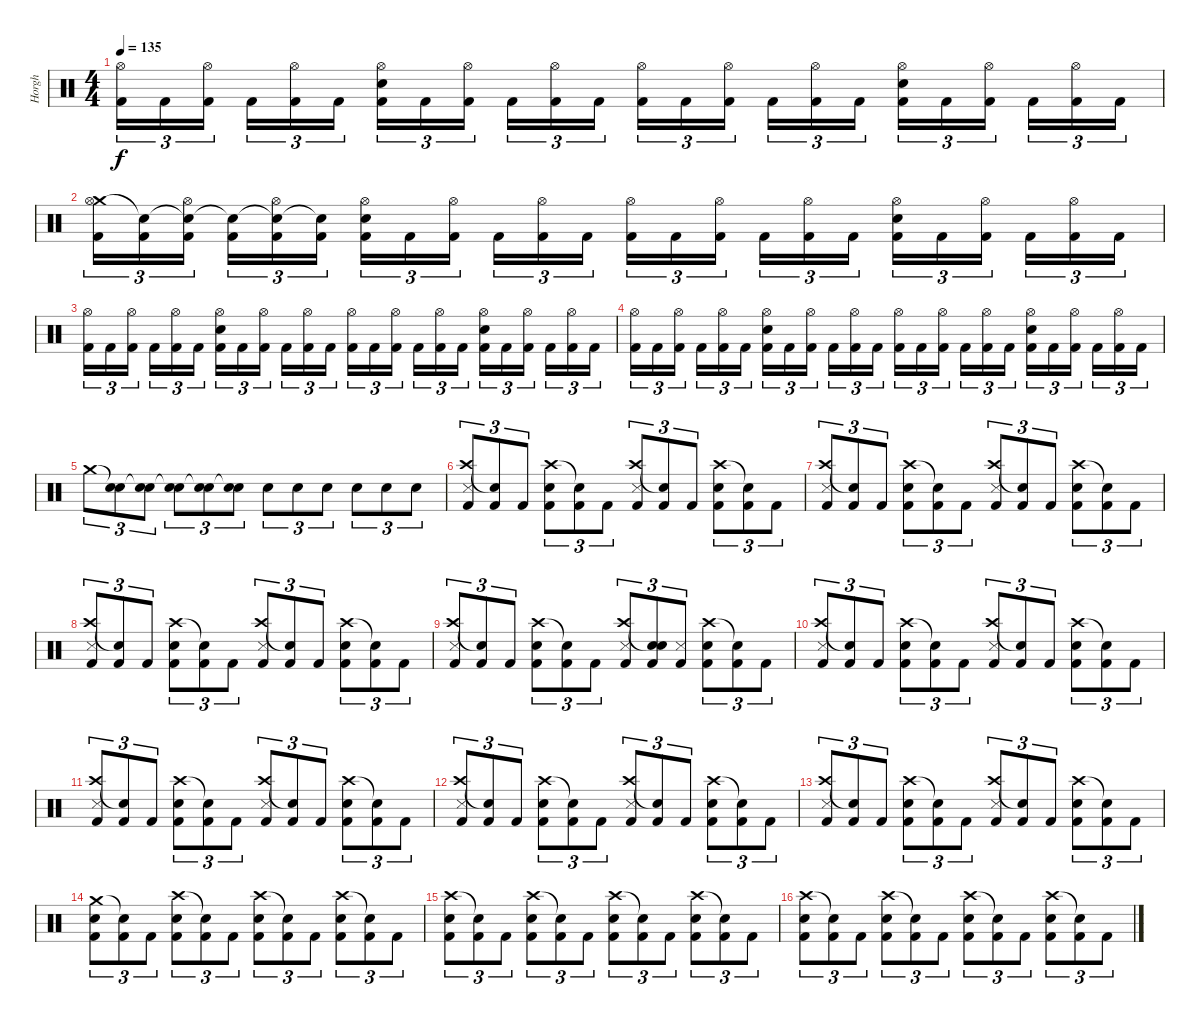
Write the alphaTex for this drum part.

\track ("Horgh" "Horgh") {instrument percussion}
\staff {score}
\articulation defaults
\ts (4 4)
\tempo 135
\clef neutral
\ks c
("Hi-Hat (open)" "Kick (hit) 2").16{tu (3 2) dy f} "Kick (hit) 2".16{tu (3 2)} ("Hi-Hat (open)" "Kick (hit) 2").16{tu (3 2) beam splitsecondary} "Kick (hit) 2".16{tu (3 2)} ("Hi-Hat (open)" "Kick (hit) 2").16{tu (3 2)} "Kick (hit) 2".16{tu (3 2)} ("Hi-Hat (open)" "Electric Snare (hit)" "Kick (hit) 2").16{tu (3 2)} "Kick (hit) 2".16{tu (3 2)} ("Hi-Hat (open)" "Kick (hit) 2").16{tu (3 2) beam splitsecondary} "Kick (hit) 2".16{tu (3 2)} ("Hi-Hat (open)" "Kick (hit) 2").16{tu (3 2)} "Kick (hit) 2".16{tu (3 2)} ("Hi-Hat (open)" "Kick (hit) 2").16{tu (3 2)} "Kick (hit) 2".16{tu (3 2)} ("Hi-Hat (open)" "Kick (hit) 2").16{tu (3 2) beam splitsecondary} "Kick (hit) 2".16{tu (3 2)} ("Hi-Hat (open)" "Kick (hit) 2").16{tu (3 2)} "Kick (hit) 2".16{tu (3 2)} ("Hi-Hat (open)" "Electric Snare (hit)" "Kick (hit) 2").16{tu (3 2)} "Kick (hit) 2".16{tu (3 2)} ("Hi-Hat (open)" "Kick (hit) 2").16{tu (3 2) beam splitsecondary} "Kick (hit) 2".16{tu (3 2)} ("Hi-Hat (open)" "Kick (hit) 2").16{tu (3 2)} "Kick (hit) 2".16{tu (3 2)} |
("Crash medium (hit)" "Hi-Hat (open)" "Kick (hit) 2").16{tu (3 2)} ("Snare (hit)"{t} "Kick (hit) 2").16{tu (3 2)} ("Snare (hit)"{t} "Hi-Hat (open)" "Kick (hit) 2").16{tu (3 2) beam splitsecondary} ("Snare (hit)"{t} "Kick (hit) 2").16{tu (3 2)} ("Snare (hit)"{t} "Hi-Hat (open)" "Kick (hit) 2").16{tu (3 2)} ("Snare (hit)"{t} "Kick (hit) 2").16{tu (3 2)} ("Hi-Hat (open)" "Electric Snare (hit)" "Kick (hit) 2").16{tu (3 2)} "Kick (hit) 2".16{tu (3 2)} ("Hi-Hat (open)" "Kick (hit) 2").16{tu (3 2) beam splitsecondary} "Kick (hit) 2".16{tu (3 2)} ("Hi-Hat (open)" "Kick (hit) 2").16{tu (3 2)} "Kick (hit) 2".16{tu (3 2)} ("Hi-Hat (open)" "Kick (hit) 2").16{tu (3 2)} "Kick (hit) 2".16{tu (3 2)} ("Hi-Hat (open)" "Kick (hit) 2").16{tu (3 2) beam splitsecondary} "Kick (hit) 2".16{tu (3 2)} ("Hi-Hat (open)" "Kick (hit) 2").16{tu (3 2)} "Kick (hit) 2".16{tu (3 2)} ("Hi-Hat (open)" "Electric Snare (hit)" "Kick (hit) 2").16{tu (3 2)} "Kick (hit) 2".16{tu (3 2)} ("Hi-Hat (open)" "Kick (hit) 2").16{tu (3 2) beam splitsecondary} "Kick (hit) 2".16{tu (3 2)} ("Hi-Hat (open)" "Kick (hit) 2").16{tu (3 2)} "Kick (hit) 2".16{tu (3 2)} |
("Hi-Hat (open)" "Kick (hit) 2").16{tu (3 2)} "Kick (hit) 2".16{tu (3 2)} ("Hi-Hat (open)" "Kick (hit) 2").16{tu (3 2) beam splitsecondary} "Kick (hit) 2".16{tu (3 2)} ("Hi-Hat (open)" "Kick (hit) 2").16{tu (3 2)} "Kick (hit) 2".16{tu (3 2)} ("Hi-Hat (open)" "Electric Snare (hit)" "Kick (hit) 2").16{tu (3 2)} "Kick (hit) 2".16{tu (3 2)} ("Hi-Hat (open)" "Kick (hit) 2").16{tu (3 2) beam splitsecondary} "Kick (hit) 2".16{tu (3 2)} ("Hi-Hat (open)" "Kick (hit) 2").16{tu (3 2)} "Kick (hit) 2".16{tu (3 2)} ("Hi-Hat (open)" "Kick (hit) 2").16{tu (3 2)} "Kick (hit) 2".16{tu (3 2)} ("Hi-Hat (open)" "Kick (hit) 2").16{tu (3 2) beam splitsecondary} "Kick (hit) 2".16{tu (3 2)} ("Hi-Hat (open)" "Kick (hit) 2").16{tu (3 2)} "Kick (hit) 2".16{tu (3 2)} ("Hi-Hat (open)" "Electric Snare (hit)" "Kick (hit) 2").16{tu (3 2)} "Kick (hit) 2".16{tu (3 2)} ("Hi-Hat (open)" "Kick (hit) 2").16{tu (3 2) beam splitsecondary} "Kick (hit) 2".16{tu (3 2)} ("Hi-Hat (open)" "Kick (hit) 2").16{tu (3 2)} "Kick (hit) 2".16{tu (3 2)} |
("Hi-Hat (open)" "Kick (hit) 2").16{tu (3 2)} "Kick (hit) 2".16{tu (3 2)} ("Hi-Hat (open)" "Kick (hit) 2").16{tu (3 2) beam splitsecondary} "Kick (hit) 2".16{tu (3 2)} ("Hi-Hat (open)" "Kick (hit) 2").16{tu (3 2)} "Kick (hit) 2".16{tu (3 2)} ("Hi-Hat (open)" "Electric Snare (hit)" "Kick (hit) 2").16{tu (3 2)} "Kick (hit) 2".16{tu (3 2)} ("Hi-Hat (open)" "Kick (hit) 2").16{tu (3 2) beam splitsecondary} "Kick (hit) 2".16{tu (3 2)} ("Hi-Hat (open)" "Kick (hit) 2").16{tu (3 2)} "Kick (hit) 2".16{tu (3 2)} ("Hi-Hat (open)" "Kick (hit) 2").16{tu (3 2)} "Kick (hit) 2".16{tu (3 2)} ("Hi-Hat (open)" "Kick (hit) 2").16{tu (3 2) beam splitsecondary} "Kick (hit) 2".16{tu (3 2)} ("Hi-Hat (open)" "Kick (hit) 2").16{tu (3 2)} "Kick (hit) 2".16{tu (3 2)} ("Hi-Hat (open)" "Electric Snare (hit)" "Kick (hit) 2").16{tu (3 2)} "Kick (hit) 2".16{tu (3 2)} ("Hi-Hat (open)" "Kick (hit) 2").16{tu (3 2) beam splitsecondary} "Kick (hit) 2".16{tu (3 2)} ("Hi-Hat (open)" "Kick (hit) 2").16{tu (3 2)} "Kick (hit) 2".16{tu (3 2)} |
"Crash medium (hit)".8{tu (3 2)} ("Snare (hit)"{t} "Electric Snare (hit)").8{tu (3 2)} ("Snare (hit)"{t} "Electric Snare (hit)").8{tu (3 2)} ("Snare (hit)"{t} "Electric Snare (hit)").8{tu (3 2)} ("Snare (hit)"{t} "Electric Snare (hit)").8{tu (3 2)} ("Snare (hit)"{t} "Electric Snare (hit)").8{tu (3 2)} "Electric Snare (hit)".8{tu (3 2)} "Electric Snare (hit)".8{tu (3 2)} "Electric Snare (hit)".8{tu (3 2)} "Electric Snare (hit)".8{tu (3 2)} "Electric Snare (hit)".8{tu (3 2)} "Electric Snare (hit)".8{tu (3 2)} |
("Crash high (hit)" "Snare (side stick) 3" "Kick (hit) 2").8{tu (3 2)} ("Snare (hit)"{t} "Kick (hit) 2").8{tu (3 2)} "Kick (hit) 2".8{tu (3 2)} ("Crash high (hit)" "Electric Snare (hit)" "Kick (hit) 2").8{tu (3 2)} ("Snare (hit)"{t} "Kick (hit) 2").8{tu (3 2)} "Kick (hit) 2".8{tu (3 2)} ("Crash high (hit)" "Snare (side stick) 3" "Kick (hit) 2").8{tu (3 2)} ("Snare (hit)"{t} "Kick (hit) 2").8{tu (3 2)} "Kick (hit) 2".8{tu (3 2)} ("Crash high (hit)" "Electric Snare (hit)" "Kick (hit) 2").8{tu (3 2)} ("Snare (hit)"{t} "Kick (hit) 2").8{tu (3 2)} "Kick (hit) 2".8{tu (3 2)} |
("Crash high (hit)" "Snare (side stick) 3" "Kick (hit) 2").8{tu (3 2)} ("Snare (hit)"{t} "Kick (hit) 2").8{tu (3 2)} "Kick (hit) 2".8{tu (3 2)} ("Crash high (hit)" "Electric Snare (hit)" "Kick (hit) 2").8{tu (3 2)} ("Snare (hit)"{t} "Kick (hit) 2").8{tu (3 2)} "Kick (hit) 2".8{tu (3 2)} ("Crash high (hit)" "Snare (side stick) 3" "Kick (hit) 2").8{tu (3 2)} ("Snare (hit)"{t} "Kick (hit) 2").8{tu (3 2)} "Kick (hit) 2".8{tu (3 2)} ("Crash high (hit)" "Electric Snare (hit)" "Kick (hit) 2").8{tu (3 2)} ("Snare (hit)"{t} "Kick (hit) 2").8{tu (3 2)} "Kick (hit) 2".8{tu (3 2)} |
("Crash high (hit)" "Snare (side stick) 3" "Kick (hit) 2").8{tu (3 2)} ("Snare (hit)"{t} "Kick (hit) 2").8{tu (3 2)} "Kick (hit) 2".8{tu (3 2)} ("Crash high (hit)" "Electric Snare (hit)" "Kick (hit) 2").8{tu (3 2)} ("Snare (hit)"{t} "Kick (hit) 2").8{tu (3 2)} "Kick (hit) 2".8{tu (3 2)} ("Crash high (hit)" "Snare (side stick) 3" "Kick (hit) 2").8{tu (3 2)} ("Snare (hit)"{t} "Kick (hit) 2").8{tu (3 2)} "Kick (hit) 2".8{tu (3 2)} ("Crash high (hit)" "Electric Snare (hit)" "Kick (hit) 2").8{tu (3 2)} ("Snare (hit)"{t} "Kick (hit) 2").8{tu (3 2)} "Kick (hit) 2".8{tu (3 2)} |
("Crash high (hit)" "Snare (side stick) 3" "Kick (hit) 2").8{tu (3 2)} ("Snare (hit)"{t} "Kick (hit) 2").8{tu (3 2)} "Kick (hit) 2".8{tu (3 2)} ("Crash high (hit)" "Electric Snare (hit)" "Kick (hit) 2").8{tu (3 2)} ("Snare (hit)"{t} "Kick (hit) 2").8{tu (3 2)} "Kick (hit) 2".8{tu (3 2)} ("Crash high (hit)" "Snare (side stick) 3" "Kick (hit) 2").8{tu (3 2)} ("Snare (hit)"{t} "Electric Snare (hit)" "Kick (hit) 2").8{tu (3 2)} ("Snare (side stick) 3" "Kick (hit) 2").8{tu (3 2)} ("Crash high (hit)" "Electric Snare (hit)" "Kick (hit) 2").8{tu (3 2)} ("Snare (hit)"{t} "Kick (hit) 2").8{tu (3 2)} "Kick (hit) 2".8{tu (3 2)} |
("Crash high (hit)" "Snare (side stick) 3" "Kick (hit) 2").8{tu (3 2)} ("Snare (hit)"{t} "Kick (hit) 2").8{tu (3 2)} "Kick (hit) 2".8{tu (3 2)} ("Crash high (hit)" "Electric Snare (hit)" "Kick (hit) 2").8{tu (3 2)} ("Snare (hit)"{t} "Kick (hit) 2").8{tu (3 2)} "Kick (hit) 2".8{tu (3 2)} ("Crash high (hit)" "Snare (side stick) 3" "Kick (hit) 2").8{tu (3 2)} ("Snare (hit)"{t} "Kick (hit) 2").8{tu (3 2)} "Kick (hit) 2".8{tu (3 2)} ("Crash high (hit)" "Electric Snare (hit)" "Kick (hit) 2").8{tu (3 2)} ("Snare (hit)"{t} "Kick (hit) 2").8{tu (3 2)} "Kick (hit) 2".8{tu (3 2)} |
("Crash high (hit)" "Snare (side stick) 3" "Kick (hit) 2").8{tu (3 2)} ("Snare (hit)"{t} "Kick (hit) 2").8{tu (3 2)} "Kick (hit) 2".8{tu (3 2)} ("Crash high (hit)" "Electric Snare (hit)" "Kick (hit) 2").8{tu (3 2)} ("Snare (hit)"{t} "Kick (hit) 2").8{tu (3 2)} "Kick (hit) 2".8{tu (3 2)} ("Crash high (hit)" "Snare (side stick) 3" "Kick (hit) 2").8{tu (3 2)} ("Snare (hit)"{t} "Kick (hit) 2").8{tu (3 2)} "Kick (hit) 2".8{tu (3 2)} ("Crash high (hit)" "Electric Snare (hit)" "Kick (hit) 2").8{tu (3 2)} ("Snare (hit)"{t} "Kick (hit) 2").8{tu (3 2)} "Kick (hit) 2".8{tu (3 2)} |
("Crash high (hit)" "Snare (side stick) 3" "Kick (hit) 2").8{tu (3 2)} ("Snare (hit)"{t} "Kick (hit) 2").8{tu (3 2)} "Kick (hit) 2".8{tu (3 2)} ("Crash high (hit)" "Electric Snare (hit)" "Kick (hit) 2").8{tu (3 2)} ("Snare (hit)"{t} "Kick (hit) 2").8{tu (3 2)} "Kick (hit) 2".8{tu (3 2)} ("Crash high (hit)" "Snare (side stick) 3" "Kick (hit) 2").8{tu (3 2)} ("Snare (hit)"{t} "Kick (hit) 2").8{tu (3 2)} "Kick (hit) 2".8{tu (3 2)} ("Crash high (hit)" "Electric Snare (hit)" "Kick (hit) 2").8{tu (3 2)} ("Snare (hit)"{t} "Kick (hit) 2").8{tu (3 2)} "Kick (hit) 2".8{tu (3 2)} |
("Crash high (hit)" "Snare (side stick) 3" "Kick (hit) 2").8{tu (3 2)} ("Snare (hit)"{t} "Kick (hit) 2").8{tu (3 2)} "Kick (hit) 2".8{tu (3 2)} ("Crash high (hit)" "Electric Snare (hit)" "Kick (hit) 2").8{tu (3 2)} ("Snare (hit)"{t} "Kick (hit) 2").8{tu (3 2)} "Kick (hit) 2".8{tu (3 2)} ("Crash high (hit)" "Snare (side stick) 3" "Kick (hit) 2").8{tu (3 2)} ("Snare (hit)"{t} "Kick (hit) 2").8{tu (3 2)} "Kick (hit) 2".8{tu (3 2)} ("Crash high (hit)" "Electric Snare (hit)" "Kick (hit) 2").8{tu (3 2)} ("Snare (hit)"{t} "Kick (hit) 2").8{tu (3 2)} "Kick (hit) 2".8{tu (3 2)} |
("Crash medium (hit)" "Electric Snare (hit)" "Kick (hit) 2").8{tu (3 2)} ("Snare (hit)"{t} "Kick (hit) 2").8{tu (3 2)} "Kick (hit) 2".8{tu (3 2)} ("Crash high (hit)" "Electric Snare (hit)" "Kick (hit) 2").8{tu (3 2)} ("Snare (hit)"{t} "Kick (hit) 2").8{tu (3 2)} "Kick (hit) 2".8{tu (3 2)} ("Crash high (hit)" "Electric Snare (hit)" "Kick (hit) 2").8{tu (3 2)} ("Snare (hit)"{t} "Kick (hit) 2").8{tu (3 2)} "Kick (hit) 2".8{tu (3 2)} ("Crash high (hit)" "Electric Snare (hit)" "Kick (hit) 2").8{tu (3 2)} ("Snare (hit)"{t} "Kick (hit) 2").8{tu (3 2)} "Kick (hit) 2".8{tu (3 2)} |
("Crash high (hit)" "Electric Snare (hit)" "Kick (hit) 2").8{tu (3 2)} ("Snare (hit)"{t} "Kick (hit) 2").8{tu (3 2)} "Kick (hit) 2".8{tu (3 2)} ("Crash high (hit)" "Electric Snare (hit)" "Kick (hit) 2").8{tu (3 2)} ("Snare (hit)"{t} "Kick (hit) 2").8{tu (3 2)} "Kick (hit) 2".8{tu (3 2)} ("Crash high (hit)" "Electric Snare (hit)" "Kick (hit) 2").8{tu (3 2)} ("Snare (hit)"{t} "Kick (hit) 2").8{tu (3 2)} "Kick (hit) 2".8{tu (3 2)} ("Crash high (hit)" "Electric Snare (hit)" "Kick (hit) 2").8{tu (3 2)} ("Snare (hit)"{t} "Kick (hit) 2").8{tu (3 2)} "Kick (hit) 2".8{tu (3 2)} |
("Crash high (hit)" "Electric Snare (hit)" "Kick (hit) 2").8{tu (3 2)} ("Snare (hit)"{t} "Kick (hit) 2").8{tu (3 2)} "Kick (hit) 2".8{tu (3 2)} ("Crash high (hit)" "Electric Snare (hit)" "Kick (hit) 2").8{tu (3 2)} ("Snare (hit)"{t} "Kick (hit) 2").8{tu (3 2)} "Kick (hit) 2".8{tu (3 2)} ("Crash high (hit)" "Electric Snare (hit)" "Kick (hit) 2").8{tu (3 2)} ("Snare (hit)"{t} "Kick (hit) 2").8{tu (3 2)} "Kick (hit) 2".8{tu (3 2)} ("Crash high (hit)" "Electric Snare (hit)" "Kick (hit) 2").8{tu (3 2)} ("Snare (hit)"{t} "Kick (hit) 2").8{tu (3 2)} "Kick (hit) 2".8{tu (3 2)}
